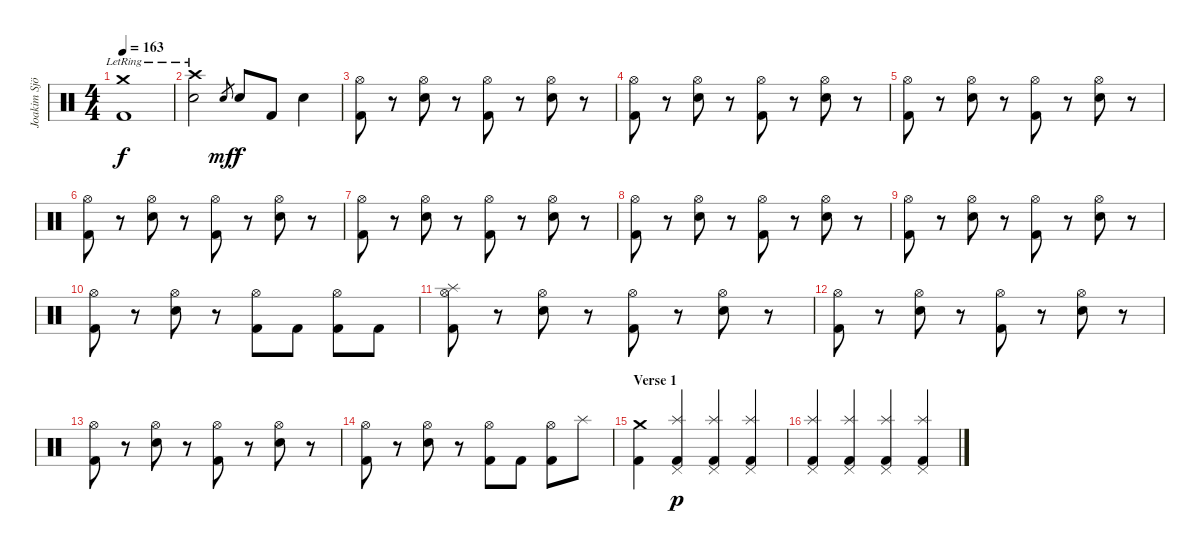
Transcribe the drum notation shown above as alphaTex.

\track ("Joakim Sjöberg" "Joakim Sjö") {instrument percussion}
\staff {score}
\articulation defaults
\ts (4 4)
\tempo 163
\clef neutral
\ks c
("Crash medium (hit)"{lr} "Kick (hit) 2").1{dy f} |
("Crash high (hit)"{lr} "Electric Snare (hit)").2 "Electric Snare (hit)".8{gr dy mf} "Electric Snare (hit)".8{dy f} "Kick (hit) 2".8 "Electric Snare (hit)".4 |
("Hi-Hat (open)" "Kick (hit) 2").8 r.8 ("Hi-Hat (open)" "Electric Snare (hit)").8 r.8 ("Hi-Hat (open)" "Kick (hit) 2").8 r.8 ("Hi-Hat (open)" "Electric Snare (hit)").8 r.8 |
("Hi-Hat (open)" "Kick (hit) 2").8 r.8 ("Hi-Hat (open)" "Electric Snare (hit)").8 r.8 ("Hi-Hat (open)" "Kick (hit) 2").8 r.8 ("Hi-Hat (open)" "Electric Snare (hit)").8 r.8 |
("Hi-Hat (open)" "Kick (hit) 2").8 r.8 ("Hi-Hat (open)" "Electric Snare (hit)").8 r.8 ("Hi-Hat (open)" "Kick (hit) 2").8 r.8 ("Hi-Hat (open)" "Electric Snare (hit)").8 r.8 |
("Hi-Hat (open)" "Kick (hit) 2").8 r.8 ("Hi-Hat (open)" "Electric Snare (hit)").8 r.8 ("Hi-Hat (open)" "Kick (hit) 2").8 r.8 ("Hi-Hat (open)" "Electric Snare (hit)").8 r.8 |
("Hi-Hat (open)" "Kick (hit) 2").8 r.8 ("Hi-Hat (open)" "Electric Snare (hit)").8 r.8 ("Hi-Hat (open)" "Kick (hit) 2").8 r.8 ("Hi-Hat (open)" "Electric Snare (hit)").8 r.8 |
("Hi-Hat (open)" "Kick (hit) 2").8 r.8 ("Hi-Hat (open)" "Electric Snare (hit)").8 r.8 ("Hi-Hat (open)" "Kick (hit) 2").8 r.8 ("Hi-Hat (open)" "Electric Snare (hit)").8 r.8 |
("Hi-Hat (open)" "Kick (hit) 2").8 r.8 ("Hi-Hat (open)" "Electric Snare (hit)").8 r.8 ("Hi-Hat (open)" "Kick (hit) 2").8 r.8 ("Hi-Hat (open)" "Electric Snare (hit)").8 r.8 |
("Hi-Hat (open)" "Kick (hit) 2").8 r.8 ("Hi-Hat (open)" "Electric Snare (hit)").8 r.8 ("Hi-Hat (open)" "Kick (hit) 2").8 "Kick (hit) 2".8 ("Hi-Hat (open)" "Kick (hit) 2").8 "Kick (hit) 2".8 |
("Splash (hit)" "Hi-Hat (open)" "Kick (hit) 2").8 r.8 ("Hi-Hat (open)" "Electric Snare (hit)").8 r.8 ("Hi-Hat (open)" "Kick (hit) 2").8 r.8 ("Hi-Hat (open)" "Electric Snare (hit)").8 r.8 |
("Hi-Hat (open)" "Kick (hit) 2").8 r.8 ("Hi-Hat (open)" "Electric Snare (hit)").8 r.8 ("Hi-Hat (open)" "Kick (hit) 2").8 r.8 ("Hi-Hat (open)" "Electric Snare (hit)").8 r.8 |
("Hi-Hat (open)" "Kick (hit) 2").8 r.8 ("Hi-Hat (open)" "Electric Snare (hit)").8 r.8 ("Hi-Hat (open)" "Kick (hit) 2").8 r.8 ("Hi-Hat (open)" "Electric Snare (hit)").8 r.8 |
("Hi-Hat (open)" "Kick (hit) 2").8 r.8 ("Hi-Hat (open)" "Electric Snare (hit)").8 r.8 ("Hi-Hat (open)" "Kick (hit) 2").8 "Kick (hit) 2".8 ("Hi-Hat (open)" "Kick (hit) 2").8 "Splash (hit)".8 |
\section ("" "Verse 1")
("Crash medium (hit)" "Kick (hit) 2").4 ("Pedal Hi-Hat (hit)" "Splash (hit)" "Kick (hit) 2").4{dy p} ("Pedal Hi-Hat (hit)" "Splash (hit)" "Kick (hit) 2").4 ("Pedal Hi-Hat (hit)" "Splash (hit)" "Kick (hit) 2").4 |
("Pedal Hi-Hat (hit)" "Splash (hit)" "Kick (hit) 2").4 ("Pedal Hi-Hat (hit)" "Splash (hit)" "Kick (hit) 2").4 ("Pedal Hi-Hat (hit)" "Splash (hit)" "Kick (hit) 2").4 ("Pedal Hi-Hat (hit)" "Splash (hit)" "Kick (hit) 2").4
